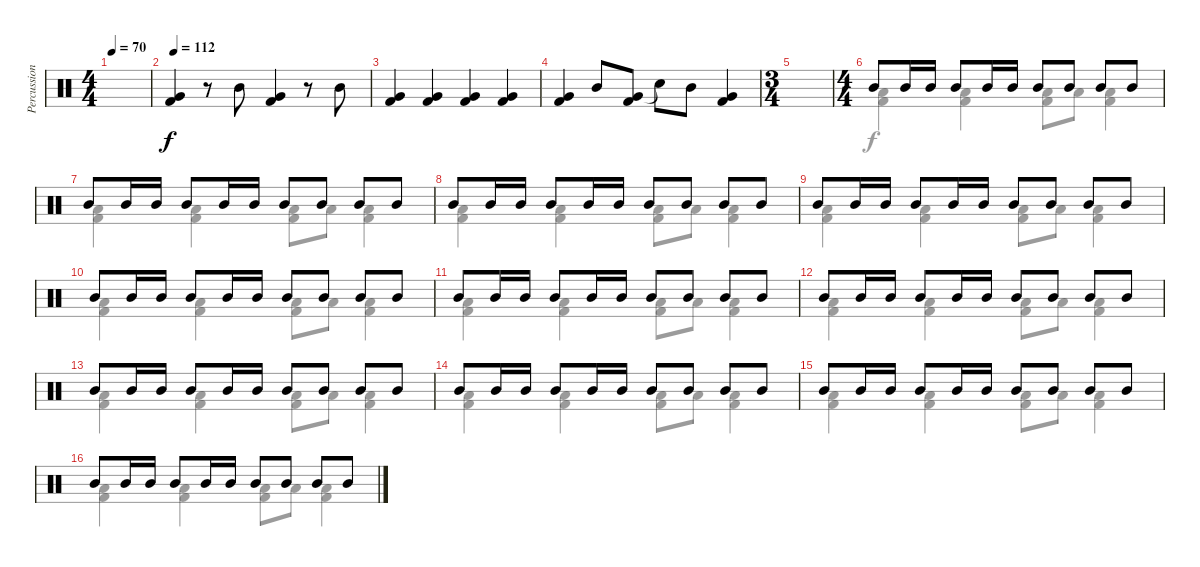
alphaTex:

\track ("Percussion" "Percussion") {instrument percussion}
\staff {score}
\articulation defaults
\voice
\ts (4 4)
\tempo 70
\clef neutral
\ks c
|
\tempo 112
("Very Low Tom (hit)" "Kick (hit) 2").4 r.8 "Mid Tom (hit)".8 ("Very Low Tom (hit)" "Kick (hit) 2").4 r.8 "Mid Tom (hit)".8 |
("Very Low Tom (hit)" "Kick (hit) 2").4 ("Very Low Tom (hit)" "Kick (hit) 2").4 ("Very Low Tom (hit)" "Kick (hit) 2").4 ("Very Low Tom (hit)" "Kick (hit) 2").4 |
("Very Low Tom (hit)" "Kick (hit) 2").4 "Mid Tom (hit)".8 ("Very Low Tom (hit)" "Kick (hit) 2").8 "Snare (hit)"{t}.8 "Mid Tom (hit)".8 ("Very Low Tom (hit)" "Kick (hit) 2").4 |
\ts (3 4)
|
\ts (4 4)
"Mid Tom (hit)".8 "Mid Tom (hit)".16 "Mid Tom (hit)".16 "Mid Tom (hit)".8 "Mid Tom (hit)".16 "Mid Tom (hit)".16 "Mid Tom (hit)".8 "Mid Tom (hit)".8 "Mid Tom (hit)".8 "Mid Tom (hit)".8 |
"Mid Tom (hit)".8 "Mid Tom (hit)".16 "Mid Tom (hit)".16 "Mid Tom (hit)".8 "Mid Tom (hit)".16 "Mid Tom (hit)".16 "Mid Tom (hit)".8 "Mid Tom (hit)".8 "Mid Tom (hit)".8 "Mid Tom (hit)".8 |
"Mid Tom (hit)".8 "Mid Tom (hit)".16 "Mid Tom (hit)".16 "Mid Tom (hit)".8 "Mid Tom (hit)".16 "Mid Tom (hit)".16 "Mid Tom (hit)".8 "Mid Tom (hit)".8 "Mid Tom (hit)".8 "Mid Tom (hit)".8 |
"Mid Tom (hit)".8 "Mid Tom (hit)".16 "Mid Tom (hit)".16 "Mid Tom (hit)".8 "Mid Tom (hit)".16 "Mid Tom (hit)".16 "Mid Tom (hit)".8 "Mid Tom (hit)".8 "Mid Tom (hit)".8 "Mid Tom (hit)".8 |
"Mid Tom (hit)".8 "Mid Tom (hit)".16 "Mid Tom (hit)".16 "Mid Tom (hit)".8 "Mid Tom (hit)".16 "Mid Tom (hit)".16 "Mid Tom (hit)".8 "Mid Tom (hit)".8 "Mid Tom (hit)".8 "Mid Tom (hit)".8 |
"Mid Tom (hit)".8 "Mid Tom (hit)".16 "Mid Tom (hit)".16 "Mid Tom (hit)".8 "Mid Tom (hit)".16 "Mid Tom (hit)".16 "Mid Tom (hit)".8 "Mid Tom (hit)".8 "Mid Tom (hit)".8 "Mid Tom (hit)".8 |
"Mid Tom (hit)".8 "Mid Tom (hit)".16 "Mid Tom (hit)".16 "Mid Tom (hit)".8 "Mid Tom (hit)".16 "Mid Tom (hit)".16 "Mid Tom (hit)".8 "Mid Tom (hit)".8 "Mid Tom (hit)".8 "Mid Tom (hit)".8 |
"Mid Tom (hit)".8 "Mid Tom (hit)".16 "Mid Tom (hit)".16 "Mid Tom (hit)".8 "Mid Tom (hit)".16 "Mid Tom (hit)".16 "Mid Tom (hit)".8 "Mid Tom (hit)".8 "Mid Tom (hit)".8 "Mid Tom (hit)".8 |
"Mid Tom (hit)".8 "Mid Tom (hit)".16 "Mid Tom (hit)".16 "Mid Tom (hit)".8 "Mid Tom (hit)".16 "Mid Tom (hit)".16 "Mid Tom (hit)".8 "Mid Tom (hit)".8 "Mid Tom (hit)".8 "Mid Tom (hit)".8 |
"Mid Tom (hit)".8 "Mid Tom (hit)".16 "Mid Tom (hit)".16 "Mid Tom (hit)".8 "Mid Tom (hit)".16 "Mid Tom (hit)".16 "Mid Tom (hit)".8 "Mid Tom (hit)".8 "Mid Tom (hit)".8 "Mid Tom (hit)".8 |
"Mid Tom (hit)".8 "Mid Tom (hit)".16 "Mid Tom (hit)".16 "Mid Tom (hit)".8 "Mid Tom (hit)".16 "Mid Tom (hit)".16 "Mid Tom (hit)".8 "Mid Tom (hit)".8 "Mid Tom (hit)".8 "Mid Tom (hit)".8
\voice
\clef neutral
\ottava regular
\simile none
\ks c
|
|
|
|
|
("Low Tom (hit)" "Kick (hit) 2").4 ("Low Floor Tom (hit)" "Kick (hit) 2").4 ("Low Floor Tom (hit)" "Kick (hit) 2").8 "Low Floor Tom (hit)".8 ("Low Tom (hit)" "Kick (hit) 2").4 |
("Low Tom (hit)" "Kick (hit) 2").4 ("Low Floor Tom (hit)" "Kick (hit) 2").4 ("Low Floor Tom (hit)" "Kick (hit) 2").8 "Low Floor Tom (hit)".8 ("Low Tom (hit)" "Kick (hit) 2").4 |
("Low Tom (hit)" "Kick (hit) 2").4 ("Low Floor Tom (hit)" "Kick (hit) 2").4 ("Low Floor Tom (hit)" "Kick (hit) 2").8 "Low Floor Tom (hit)".8 ("Low Tom (hit)" "Kick (hit) 2").4 |
("Low Tom (hit)" "Kick (hit) 2").4 ("Low Floor Tom (hit)" "Kick (hit) 2").4 ("Low Floor Tom (hit)" "Kick (hit) 2").8 "Low Floor Tom (hit)".8 ("Low Tom (hit)" "Kick (hit) 2").4 |
("Low Tom (hit)" "Kick (hit) 2").4 ("Low Floor Tom (hit)" "Kick (hit) 2").4 ("Low Floor Tom (hit)" "Kick (hit) 2").8 "Low Floor Tom (hit)".8 ("Low Tom (hit)" "Kick (hit) 2").4 |
("Low Tom (hit)" "Kick (hit) 2").4 ("Low Floor Tom (hit)" "Kick (hit) 2").4 ("Low Floor Tom (hit)" "Kick (hit) 2").8 "Low Floor Tom (hit)".8 ("Low Tom (hit)" "Kick (hit) 2").4 |
("Low Tom (hit)" "Kick (hit) 2").4 ("Low Floor Tom (hit)" "Kick (hit) 2").4 ("Low Floor Tom (hit)" "Kick (hit) 2").8 "Low Floor Tom (hit)".8 ("Low Tom (hit)" "Kick (hit) 2").4 |
("Low Tom (hit)" "Kick (hit) 2").4 ("Low Floor Tom (hit)" "Kick (hit) 2").4 ("Low Floor Tom (hit)" "Kick (hit) 2").8 "Low Floor Tom (hit)".8 ("Low Tom (hit)" "Kick (hit) 2").4 |
("Low Tom (hit)" "Kick (hit) 2").4 ("Low Floor Tom (hit)" "Kick (hit) 2").4 ("Low Floor Tom (hit)" "Kick (hit) 2").8 "Low Floor Tom (hit)".8 ("Low Tom (hit)" "Kick (hit) 2").4 |
("Low Tom (hit)" "Kick (hit) 2").4 ("Low Floor Tom (hit)" "Kick (hit) 2").4 ("Low Floor Tom (hit)" "Kick (hit) 2").8 "Low Floor Tom (hit)".8 ("Low Tom (hit)" "Kick (hit) 2").4 |
("Low Tom (hit)" "Kick (hit) 2").4 ("Low Floor Tom (hit)" "Kick (hit) 2").4 ("Low Floor Tom (hit)" "Kick (hit) 2").8 "Low Floor Tom (hit)".8 ("Low Tom (hit)" "Kick (hit) 2").4
